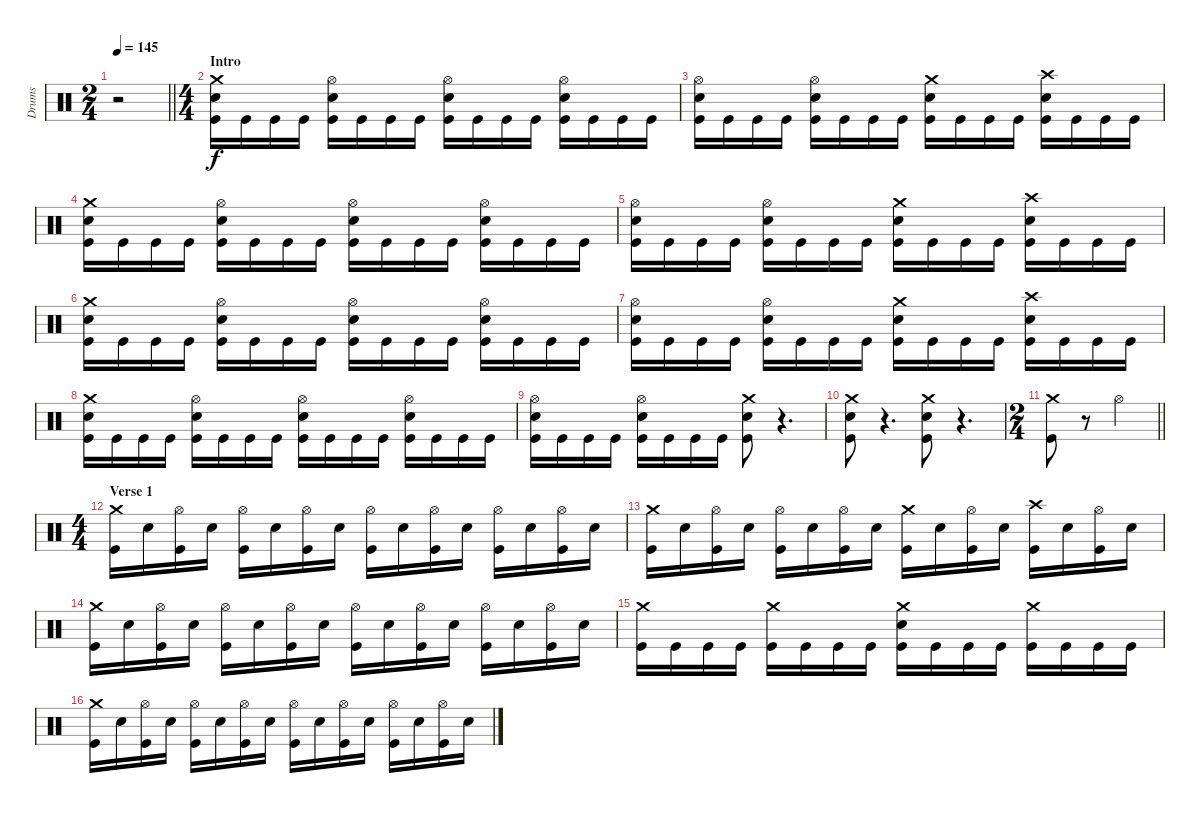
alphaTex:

\track ("Drums" "Drums") {instrument percussion}
\staff {score}
\articulation defaults
\ts (2 4)
\tempo 145
\clef neutral
\barLineRight lightlight
\ks c
r.2{dy f} |
\ts (4 4)
\section ("" "Intro")
("Crash medium (hit)" "Snare (hit) 2" "Kick (hit)").16 "Kick (hit)".16 "Kick (hit)".16 "Kick (hit)".16 ("Hi-Hat (open)" "Snare (hit) 2" "Kick (hit)").16 "Kick (hit)".16 "Kick (hit)".16 "Kick (hit)".16 ("Hi-Hat (open)" "Snare (hit) 2" "Kick (hit)").16 "Kick (hit)".16 "Kick (hit)".16 "Kick (hit)".16 ("Hi-Hat (open)" "Snare (hit) 2" "Kick (hit)").16 "Kick (hit)".16 "Kick (hit)".16 "Kick (hit)".16 |
("Hi-Hat (open)" "Snare (hit) 2" "Kick (hit)").16 "Kick (hit)".16 "Kick (hit)".16 "Kick (hit)".16 ("Hi-Hat (open)" "Snare (hit) 2" "Kick (hit)").16 "Kick (hit)".16 "Kick (hit)".16 "Kick (hit)".16 ("Crash medium (hit)" "Snare (hit) 2" "Kick (hit)").16 "Kick (hit)".16 "Kick (hit)".16 "Kick (hit)".16 ("Crash high (hit)" "Snare (hit) 2" "Kick (hit)").16 "Kick (hit)".16 "Kick (hit)".16 "Kick (hit)".16 |
("Crash medium (hit)" "Snare (hit) 2" "Kick (hit)").16 "Kick (hit)".16 "Kick (hit)".16 "Kick (hit)".16 ("Hi-Hat (open)" "Snare (hit) 2" "Kick (hit)").16 "Kick (hit)".16 "Kick (hit)".16 "Kick (hit)".16 ("Hi-Hat (open)" "Snare (hit) 2" "Kick (hit)").16 "Kick (hit)".16 "Kick (hit)".16 "Kick (hit)".16 ("Hi-Hat (open)" "Snare (hit) 2" "Kick (hit)").16 "Kick (hit)".16 "Kick (hit)".16 "Kick (hit)".16 |
("Hi-Hat (open)" "Snare (hit) 2" "Kick (hit)").16 "Kick (hit)".16 "Kick (hit)".16 "Kick (hit)".16 ("Hi-Hat (open)" "Snare (hit) 2" "Kick (hit)").16 "Kick (hit)".16 "Kick (hit)".16 "Kick (hit)".16 ("Crash medium (hit)" "Snare (hit) 2" "Kick (hit)").16 "Kick (hit)".16 "Kick (hit)".16 "Kick (hit)".16 ("Crash high (hit)" "Snare (hit) 2" "Kick (hit)").16 "Kick (hit)".16 "Kick (hit)".16 "Kick (hit)".16 |
("Crash medium (hit)" "Snare (hit) 2" "Kick (hit)").16 "Kick (hit)".16 "Kick (hit)".16 "Kick (hit)".16 ("Hi-Hat (open)" "Snare (hit) 2" "Kick (hit)").16 "Kick (hit)".16 "Kick (hit)".16 "Kick (hit)".16 ("Hi-Hat (open)" "Snare (hit) 2" "Kick (hit)").16 "Kick (hit)".16 "Kick (hit)".16 "Kick (hit)".16 ("Hi-Hat (open)" "Snare (hit) 2" "Kick (hit)").16 "Kick (hit)".16 "Kick (hit)".16 "Kick (hit)".16 |
("Hi-Hat (open)" "Snare (hit) 2" "Kick (hit)").16 "Kick (hit)".16 "Kick (hit)".16 "Kick (hit)".16 ("Hi-Hat (open)" "Snare (hit) 2" "Kick (hit)").16 "Kick (hit)".16 "Kick (hit)".16 "Kick (hit)".16 ("Crash medium (hit)" "Snare (hit) 2" "Kick (hit)").16 "Kick (hit)".16 "Kick (hit)".16 "Kick (hit)".16 ("Crash high (hit)" "Snare (hit) 2" "Kick (hit)").16 "Kick (hit)".16 "Kick (hit)".16 "Kick (hit)".16 |
("Crash medium (hit)" "Snare (hit) 2" "Kick (hit)").16 "Kick (hit)".16 "Kick (hit)".16 "Kick (hit)".16 ("Hi-Hat (open)" "Snare (hit) 2" "Kick (hit)").16 "Kick (hit)".16 "Kick (hit)".16 "Kick (hit)".16 ("Hi-Hat (open)" "Snare (hit) 2" "Kick (hit)").16 "Kick (hit)".16 "Kick (hit)".16 "Kick (hit)".16 ("Hi-Hat (open)" "Snare (hit) 2" "Kick (hit)").16 "Kick (hit)".16 "Kick (hit)".16 "Kick (hit)".16 |
("Hi-Hat (open)" "Snare (hit) 2" "Kick (hit)").16 "Kick (hit)".16 "Kick (hit)".16 "Kick (hit)".16 ("Hi-Hat (open)" "Snare (hit) 2" "Kick (hit)").16 "Kick (hit)".16 "Kick (hit)".16 "Kick (hit)".16 ("Crash medium (hit)" "Snare (hit) 2" "Kick (hit)").8 r.4{d} |
("Crash medium (hit)" "Snare (hit) 2" "Kick (hit)").8 r.4{d} ("Crash medium (hit)" "Snare (hit) 2" "Kick (hit)").8 r.4{d} |
\ts (2 4)
\barLineRight lightlight
("Crash medium (hit)" "Kick (hit)").8 r.8 "Hi-Hat (open)".4 |
\ts (4 4)
\section ("" "Verse 1")
("Crash medium (hit)" "Kick (hit)").16 "Snare (hit) 2".16 ("Hi-Hat (open)" "Kick (hit)").16 "Snare (hit) 2".16 ("Hi-Hat (open)" "Kick (hit)").16 "Snare (hit) 2".16 ("Hi-Hat (open)" "Kick (hit)").16 "Snare (hit) 2".16 ("Hi-Hat (open)" "Kick (hit)").16 "Snare (hit) 2".16 ("Hi-Hat (open)" "Kick (hit)").16 "Snare (hit) 2".16 ("Hi-Hat (open)" "Kick (hit)").16 "Snare (hit) 2".16 ("Hi-Hat (open)" "Kick (hit)").16 "Snare (hit) 2".16 |
("Crash medium (hit)" "Kick (hit)").16 "Snare (hit) 2".16 ("Hi-Hat (open)" "Kick (hit)").16 "Snare (hit) 2".16 ("Hi-Hat (open)" "Kick (hit)").16 "Snare (hit) 2".16 ("Hi-Hat (open)" "Kick (hit)").16 "Snare (hit) 2".16 ("Crash medium (hit)" "Kick (hit)").16 "Snare (hit) 2".16 ("Hi-Hat (open)" "Kick (hit)").16 "Snare (hit) 2".16 ("Crash high (hit)" "Kick (hit)").16 "Snare (hit) 2".16 ("Hi-Hat (open)" "Kick (hit)").16 "Snare (hit) 2".16 |
("Crash medium (hit)" "Kick (hit)").16 "Snare (hit) 2".16 ("Hi-Hat (open)" "Kick (hit)").16 "Snare (hit) 2".16 ("Hi-Hat (open)" "Kick (hit)").16 "Snare (hit) 2".16 ("Hi-Hat (open)" "Kick (hit)").16 "Snare (hit) 2".16 ("Hi-Hat (open)" "Kick (hit)").16 "Snare (hit) 2".16 ("Hi-Hat (open)" "Kick (hit)").16 "Snare (hit) 2".16 ("Hi-Hat (open)" "Kick (hit)").16 "Snare (hit) 2".16 ("Hi-Hat (open)" "Kick (hit)").16 "Snare (hit) 2".16 |
("Crash medium (hit)" "Kick (hit)").16 "Kick (hit)".16 "Kick (hit)".16 "Kick (hit)".16 ("Crash medium (hit)" "Kick (hit)").16 "Kick (hit)".16 "Kick (hit)".16 "Kick (hit)".16 ("Crash medium (hit)" "Snare (hit) 2" "Kick (hit)").16 "Kick (hit)".16 "Kick (hit)".16 "Kick (hit)".16 ("Crash medium (hit)" "Kick (hit)").16 "Kick (hit)".16 "Kick (hit)".16 "Kick (hit)".16 |
("Crash medium (hit)" "Kick (hit)").16 "Snare (hit) 2".16 ("Hi-Hat (open)" "Kick (hit)").16 "Snare (hit) 2".16 ("Hi-Hat (open)" "Kick (hit)").16 "Snare (hit) 2".16 ("Hi-Hat (open)" "Kick (hit)").16 "Snare (hit) 2".16 ("Hi-Hat (open)" "Kick (hit)").16 "Snare (hit) 2".16 ("Hi-Hat (open)" "Kick (hit)").16 "Snare (hit) 2".16 ("Hi-Hat (open)" "Kick (hit)").16 "Snare (hit) 2".16 ("Hi-Hat (open)" "Kick (hit)").16 "Snare (hit) 2".16
